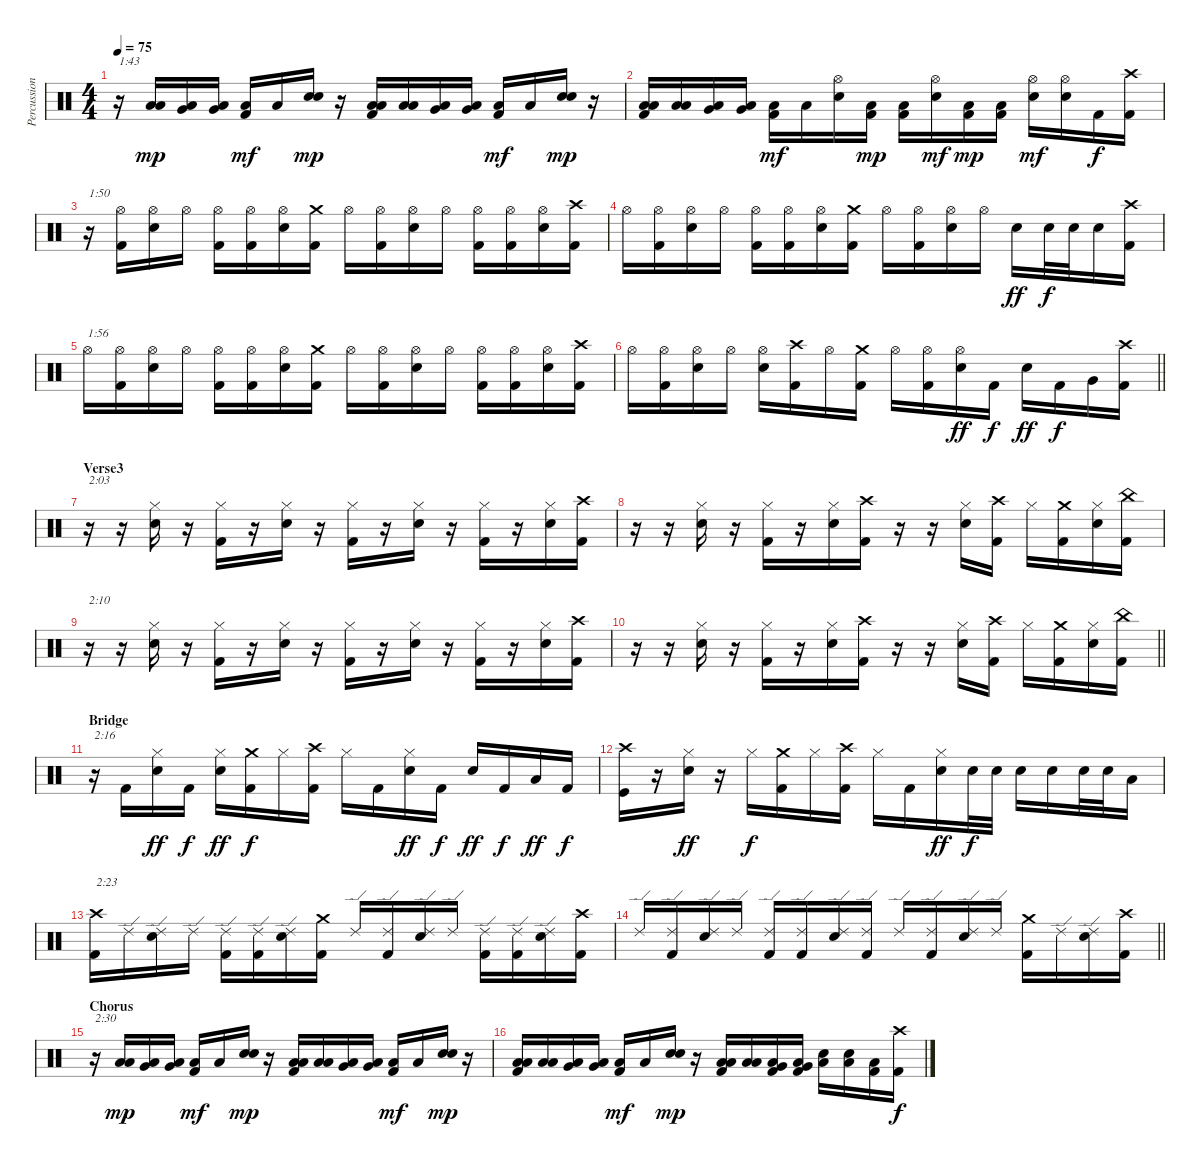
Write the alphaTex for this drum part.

\track ("Percussion" "Percussion") {instrument percussion}
\staff {score}
\articulation defaults
\ts (4 4)
\tempo 75
\clef neutral
\ks c
r.16{txt "1:43" dy f} ("Low Tom (hit)" "Low Floor Tom (hit)").16{dy mp} ("Very Low Tom (hit)" "Low Floor Tom (hit)").16 ("Very Low Tom (hit)" "Low Floor Tom (hit)").16 ("Low Floor Tom (hit)" "Kick (hit) 2").16{dy mf} "Low Floor Tom (hit)".16 ("Snare (hit) 2" "Electric Snare (hit)").16{dy mp} r.16 ("Low Tom (hit)" "Low Floor Tom (hit)" "Kick (hit) 2").16 ("Low Tom (hit)" "Low Floor Tom (hit)").16 ("Very Low Tom (hit)" "Low Floor Tom (hit)").16 ("Very Low Tom (hit)" "Low Floor Tom (hit)").16 ("Low Floor Tom (hit)" "Kick (hit) 2").16{dy mf} "Low Floor Tom (hit)".16 ("Snare (hit) 2" "Electric Snare (hit)").16{dy mp} r.16 |
("Low Tom (hit)" "Low Floor Tom (hit)" "Kick (hit) 2").16 ("Low Tom (hit)" "Low Floor Tom (hit)").16 ("Very Low Tom (hit)" "Low Floor Tom (hit)").16 ("Very Low Tom (hit)" "Low Floor Tom (hit)").16 ("Low Floor Tom (hit)" "Kick (hit) 2").16{dy mf} "Low Floor Tom (hit)".16 ("Hi-Hat (open)" "Electric Snare (hit)").16 ("Low Floor Tom (hit)" "Kick (hit) 2").16{dy mp} ("Low Floor Tom (hit)" "Kick (hit) 2").16 ("Hi-Hat (open)" "Electric Snare (hit)").16{dy mf} ("Low Floor Tom (hit)" "Kick (hit) 2").16{dy mp} ("Low Floor Tom (hit)" "Kick (hit) 2").16 ("Hi-Hat (open)" "Electric Snare (hit)").16{dy mf} ("Hi-Hat (open)" "Electric Snare (hit)").16 "Kick (hit) 2".16{dy f} ("Crash high (hit)" "Kick (hit) 2").16 |
r.16{txt "1:50"} ("Hi-Hat (open)" "Kick (hit) 2").16 ("Hi-Hat (open)" "Electric Snare (hit)").16 "Hi-Hat (open)".16 ("Hi-Hat (open)" "Kick (hit) 2").16 ("Hi-Hat (open)" "Kick (hit) 2").16 ("Hi-Hat (open)" "Electric Snare (hit)").16 ("Crash medium (hit)" "Kick (hit) 2").16 "Hi-Hat (open)".16 ("Hi-Hat (open)" "Kick (hit) 2").16 ("Hi-Hat (open)" "Electric Snare (hit)").16 "Hi-Hat (open)".16 ("Hi-Hat (open)" "Kick (hit) 2").16 ("Hi-Hat (open)" "Kick (hit) 2").16 ("Hi-Hat (open)" "Electric Snare (hit)").16 ("Crash high (hit)" "Kick (hit) 2").16 |
"Hi-Hat (open)".16 ("Hi-Hat (open)" "Kick (hit) 2").16 ("Hi-Hat (open)" "Electric Snare (hit)").16 "Hi-Hat (open)".16 ("Hi-Hat (open)" "Kick (hit) 2").16 ("Hi-Hat (open)" "Kick (hit) 2").16 ("Hi-Hat (open)" "Electric Snare (hit)").16 ("Crash medium (hit)" "Kick (hit) 2").16 "Hi-Hat (open)".16 ("Hi-Hat (open)" "Kick (hit) 2").16 ("Hi-Hat (open)" "Electric Snare (hit)").16 "Hi-Hat (open)".16 "Electric Snare (hit)".16{dy ff} "Electric Snare (hit)".32{dy f} "Electric Snare (hit)".32 "Electric Snare (hit)".16 ("Crash high (hit)" "Kick (hit) 2").16 |
"Hi-Hat (open)".16{txt "1:56"} ("Hi-Hat (open)" "Kick (hit) 2").16 ("Hi-Hat (open)" "Electric Snare (hit)").16 "Hi-Hat (open)".16 ("Hi-Hat (open)" "Kick (hit) 2").16 ("Hi-Hat (open)" "Kick (hit) 2").16 ("Hi-Hat (open)" "Electric Snare (hit)").16 ("Crash medium (hit)" "Kick (hit) 2").16 "Hi-Hat (open)".16 ("Hi-Hat (open)" "Kick (hit) 2").16 ("Hi-Hat (open)" "Electric Snare (hit)").16 "Hi-Hat (open)".16 ("Hi-Hat (open)" "Kick (hit) 2").16 ("Hi-Hat (open)" "Kick (hit) 2").16 ("Hi-Hat (open)" "Electric Snare (hit)").16 ("Crash high (hit)" "Kick (hit) 2").16 |
\barLineRight lightlight "Hi-Hat (open)".16
("Hi-Hat (open)" "Kick (hit) 2").16 ("Hi-Hat (open)" "Electric Snare (hit)").16 "Hi-Hat (open)".16 ("Hi-Hat (open)" "Electric Snare (hit)").16 ("Crash high (hit)" "Kick (hit) 2").16 "Hi-Hat (open)".16 ("Crash medium (hit)" "Kick (hit) 2").16 "Hi-Hat (open)".16 ("Hi-Hat (open)" "Kick (hit) 2").16 ("Hi-Hat (open)" "Electric Snare (hit)").16{dy ff} "Kick (hit) 2".16{dy f} "Electric Snare (hit)".16{dy ff} "Kick (hit) 2".16{dy f} "Very Low Tom (hit)".16 ("Crash high (hit)" "Kick (hit) 2").16 |
\section ("" "Verse3")
r.16{txt "2:03"} r.16 ("Hi-Hat (closed)" "Electric Snare (hit)").16 r.16 ("Hi-Hat (closed)" "Kick (hit) 2").16 r.16 ("Hi-Hat (closed)" "Electric Snare (hit)").16 r.16 ("Hi-Hat (closed)" "Kick (hit) 2").16 r.16 ("Hi-Hat (closed)" "Electric Snare (hit)").16 r.16 ("Hi-Hat (closed)" "Kick (hit) 2").16 r.16 ("Hi-Hat (closed)" "Electric Snare (hit)").16 ("Crash high (hit)" "Kick (hit) 2").16 |
r.16 r.16 ("Hi-Hat (closed)" "Electric Snare (hit)").16 r.16 ("Hi-Hat (closed)" "Kick (hit) 2").16 r.16 ("Hi-Hat (closed)" "Electric Snare (hit)").16 ("Crash high (hit)" "Kick (hit) 2").16 r.16 r.16 ("Hi-Hat (closed)" "Electric Snare (hit)").16 ("Crash high (hit)" "Kick (hit) 2").16 "Hi-Hat (closed)".16 ("Crash medium (hit)" "Kick (hit) 2").16 ("Hi-Hat (closed)" "Electric Snare (hit)").16 ("China (hit)" "Kick (hit) 2").16 |
r.16{txt "2:10"} r.16 ("Hi-Hat (closed)" "Electric Snare (hit)").16 r.16 ("Hi-Hat (closed)" "Kick (hit) 2").16 r.16 ("Hi-Hat (closed)" "Electric Snare (hit)").16 r.16 ("Hi-Hat (closed)" "Kick (hit) 2").16 r.16 ("Hi-Hat (closed)" "Electric Snare (hit)").16 r.16 ("Hi-Hat (closed)" "Kick (hit) 2").16 r.16 ("Hi-Hat (closed)" "Electric Snare (hit)").16 ("Crash high (hit)" "Kick (hit) 2").16 |
\barLineRight lightlight
r.16 r.16 ("Hi-Hat (closed)" "Electric Snare (hit)").16 r.16 ("Hi-Hat (closed)" "Kick (hit) 2").16 r.16 ("Hi-Hat (closed)" "Electric Snare (hit)").16 ("Crash high (hit)" "Kick (hit) 2").16 r.16 r.16 ("Hi-Hat (closed)" "Electric Snare (hit)").16 ("Crash high (hit)" "Kick (hit) 2").16 "Hi-Hat (closed)".16 ("Crash medium (hit)" "Kick (hit) 2").16 ("Hi-Hat (closed)" "Electric Snare (hit)").16 ("China (hit)" "Kick (hit) 2").16 |
\section ("" "Bridge")
r.16{txt "2:16"} "Kick (hit) 2".16 ("Hi-Hat (closed)" "Electric Snare (hit)").16{dy ff} "Kick (hit) 2".16{dy f} ("Hi-Hat (closed)" "Electric Snare (hit)").16{dy ff} ("Crash medium (hit)" "Kick (hit) 2").16{dy f} "Hi-Hat (closed)".16 ("Crash high (hit)" "Kick (hit) 2").16 "Hi-Hat (closed)".16 "Kick (hit) 2".16 ("Hi-Hat (closed)" "Electric Snare (hit)").16{dy ff} "Kick (hit) 2".16{dy f} "Electric Snare (hit)".16{dy ff} "Kick (hit) 2".16{dy f} "Low Floor Tom (hit)".16{dy ff} "Kick (hit) 2".16{dy f} |
("Crash high (hit)" "Kick (hit)").16 r.16 ("Hi-Hat (closed)" "Electric Snare (hit)").16{dy ff} r.16 "Hi-Hat (closed)".16{dy f} ("Crash medium (hit)" "Kick (hit) 2").16 "Hi-Hat (closed)".16 ("Crash high (hit)" "Kick (hit) 2").16 "Hi-Hat (closed)".16 "Kick (hit) 2".16 ("Hi-Hat (closed)" "Electric Snare (hit)").16{dy ff} "Electric Snare (hit)".32{dy f} "Electric Snare (hit)".32 "Electric Snare (hit)".16 "Electric Snare (hit)".16 "Electric Snare (hit)".32 "Electric Snare (hit)".32 "Low Tom (hit)".16 |
("Crash high (hit)" "Kick (hit) 2").16{txt "2:23"} "Ride (edge) 2".16 ("Ride (edge) 2" "Electric Snare (hit)").16 "Ride (edge) 2".16 ("Ride (edge) 2" "Kick (hit) 2").16 ("Ride (edge) 2" "Kick (hit) 2").16 ("Ride (edge) 2" "Electric Snare (hit)").16 ("Crash medium (hit)" "Kick (hit) 2").16 "Ride (edge) 2".16 ("Ride (edge) 2" "Kick (hit) 2").16 ("Ride (edge) 2" "Electric Snare (hit)").16 "Ride (edge) 2".16 ("Ride (edge) 2" "Kick (hit) 2").16 ("Ride (edge) 2" "Kick (hit) 2").16 ("Ride (edge) 2" "Electric Snare (hit)").16 ("Crash high (hit)" "Kick (hit) 2").16 |
\barLineRight lightlight "Ride (edge) 2".16
("Ride (edge) 2" "Kick (hit) 2").16 ("Ride (edge) 2" "Electric Snare (hit)").16 "Ride (edge) 2".16 ("Ride (edge) 2" "Kick (hit) 2").16 ("Ride (edge) 2" "Kick (hit) 2").16 ("Ride (edge) 2" "Electric Snare (hit)").16 ("Ride (edge) 2" "Kick (hit) 2").16 "Ride (edge) 2".16 ("Ride (edge) 2" "Kick (hit) 2").16 ("Ride (edge) 2" "Electric Snare (hit)").16 "Ride (edge) 2".16 ("Crash medium (hit)" "Kick (hit) 2").16 "Ride (edge) 2".16 ("Ride (edge) 2" "Electric Snare (hit)").16 ("Crash high (hit)" "Kick (hit) 2").16 |
\section ("" "Chorus")
r.16{txt "2:30"} ("Low Tom (hit)" "Low Floor Tom (hit)").16{dy mp} ("Very Low Tom (hit)" "Low Floor Tom (hit)").16 ("Very Low Tom (hit)" "Low Floor Tom (hit)").16 ("Low Floor Tom (hit)" "Kick (hit) 2").16{dy mf} "Low Floor Tom (hit)".16 ("Snare (hit) 2" "Electric Snare (hit)").16{dy mp} r.16 ("Low Tom (hit)" "Low Floor Tom (hit)" "Kick (hit) 2").16 ("Low Tom (hit)" "Low Floor Tom (hit)").16 ("Very Low Tom (hit)" "Low Floor Tom (hit)").16 ("Very Low Tom (hit)" "Low Floor Tom (hit)").16 ("Low Floor Tom (hit)" "Kick (hit) 2").16{dy mf} "Low Floor Tom (hit)".16 ("Snare (hit) 2" "Electric Snare (hit)").16{dy mp} r.16 |
("Low Tom (hit)" "Low Floor Tom (hit)" "Kick (hit) 2").16 ("Low Tom (hit)" "Low Floor Tom (hit)").16 ("Very Low Tom (hit)" "Low Floor Tom (hit)").16 ("Very Low Tom (hit)" "Low Floor Tom (hit)").16 ("Low Floor Tom (hit)" "Kick (hit) 2").16{dy mf} "Low Floor Tom (hit)".16 ("Snare (hit) 2" "Electric Snare (hit)").16{dy mp} r.16 ("Low Tom (hit)" "Low Floor Tom (hit)" "Kick (hit) 2").16 ("Low Tom (hit)" "Low Floor Tom (hit)").16 ("Very Low Tom (hit)" "Low Floor Tom (hit)" "Kick (hit) 2").16 ("Very Low Tom (hit)" "Low Floor Tom (hit)" "Kick (hit) 2").16 ("Electric Snare (hit)" "Low Floor Tom (hit)").16 ("Electric Snare (hit)" "Low Floor Tom (hit)").16 ("Low Floor Tom (hit)" "Kick (hit) 2").16 ("Crash high (hit)" "Kick (hit) 2").16{dy f}
